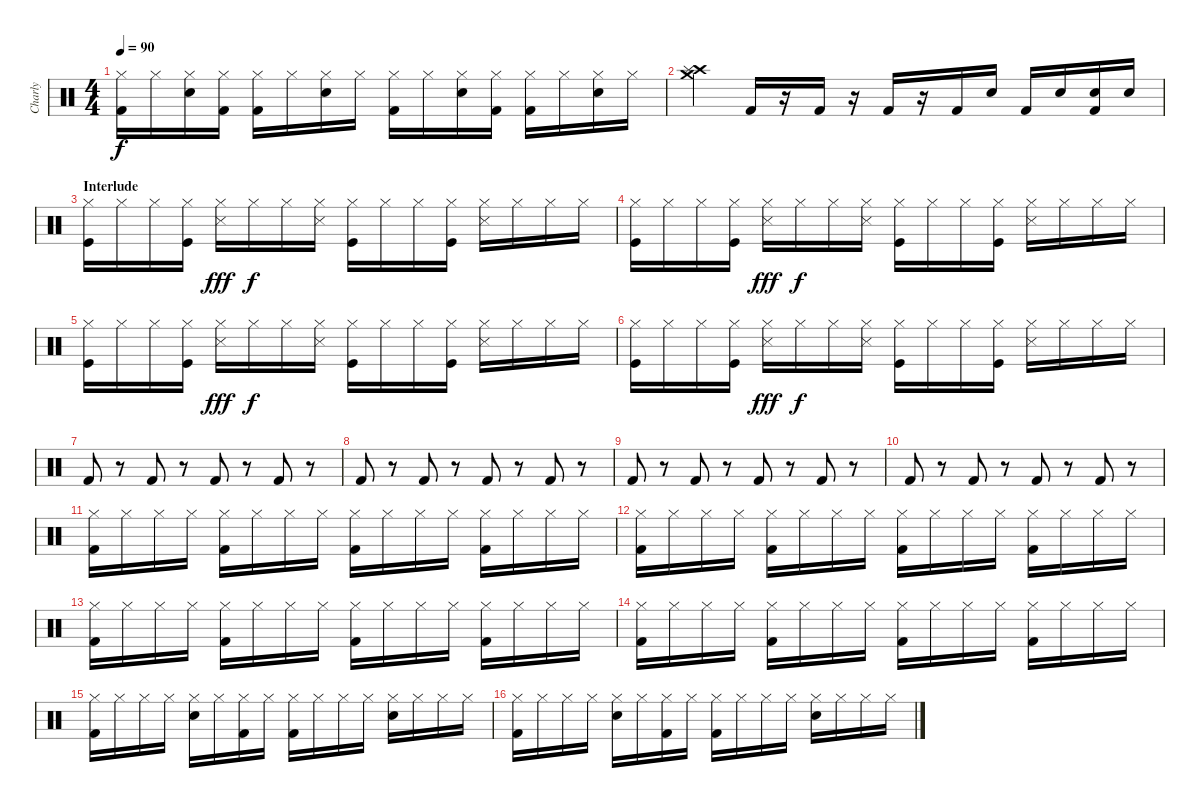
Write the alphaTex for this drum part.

\track ("Charly" "Charly") {instrument percussion}
\staff {score}
\articulation defaults
\ts (4 4)
\tempo 90
\clef neutral
\ks c
("Hi-Hat (closed)" "Kick (hit) 2").16{dy f} "Hi-Hat (closed)".16 ("Hi-Hat (closed)" "Electric Snare (hit)").16 ("Hi-Hat (closed)" "Kick (hit) 2").16 ("Hi-Hat (closed)" "Kick (hit) 2").16 "Hi-Hat (closed)".16 ("Hi-Hat (closed)" "Electric Snare (hit)").16 "Hi-Hat (closed)".16 ("Hi-Hat (closed)" "Kick (hit) 2").16 "Hi-Hat (closed)".16 ("Hi-Hat (closed)" "Electric Snare (hit)").16 ("Hi-Hat (closed)" "Kick (hit) 2").16 ("Hi-Hat (closed)" "Kick (hit) 2").16 "Hi-Hat (closed)".16 ("Hi-Hat (closed)" "Electric Snare (hit)").16 "Hi-Hat (closed)".16 |
("Crash high (hit)" "Splash (hit)" "Crash medium (hit)").4 "Kick (hit) 2".16 r.16 "Kick (hit) 2".16 r.16 "Kick (hit) 2".16 r.16 "Kick (hit) 2".16 "Electric Snare (hit)".16 "Kick (hit) 2".16 "Electric Snare (hit)".16 ("Electric Snare (hit)" "Kick (hit) 2").16 "Electric Snare (hit)".16 |
\section ("" "Interlude")
("Hi-Hat (closed)" "Kick (hit)").16 "Hi-Hat (closed)".16 "Hi-Hat (closed)".16 ("Hi-Hat (closed)" "Kick (hit)").16 ("Hi-Hat (closed)" "Snare (side stick) 3").16{dy fff} "Hi-Hat (closed)".16{dy f} "Hi-Hat (closed)".16 ("Hi-Hat (closed)" "Snare (side stick) 3").16 ("Hi-Hat (closed)" "Kick (hit)").16 "Hi-Hat (closed)".16 "Hi-Hat (closed)".16 ("Hi-Hat (closed)" "Kick (hit)").16 ("Hi-Hat (closed)" "Snare (side stick) 3").16 "Hi-Hat (closed)".16 "Hi-Hat (closed)".16 "Hi-Hat (closed)".16 |
("Hi-Hat (closed)" "Kick (hit)").16 "Hi-Hat (closed)".16 "Hi-Hat (closed)".16 ("Hi-Hat (closed)" "Kick (hit)").16 ("Hi-Hat (closed)" "Snare (side stick) 3").16{dy fff} "Hi-Hat (closed)".16{dy f} "Hi-Hat (closed)".16 ("Hi-Hat (closed)" "Snare (side stick) 3").16 ("Hi-Hat (closed)" "Kick (hit)").16 "Hi-Hat (closed)".16 "Hi-Hat (closed)".16 ("Hi-Hat (closed)" "Kick (hit)").16 ("Hi-Hat (closed)" "Snare (side stick) 3").16 "Hi-Hat (closed)".16 "Hi-Hat (closed)".16 "Hi-Hat (closed)".16 |
("Hi-Hat (closed)" "Kick (hit)").16 "Hi-Hat (closed)".16 "Hi-Hat (closed)".16 ("Hi-Hat (closed)" "Kick (hit)").16 ("Hi-Hat (closed)" "Snare (side stick) 3").16{dy fff} "Hi-Hat (closed)".16{dy f} "Hi-Hat (closed)".16 ("Hi-Hat (closed)" "Snare (side stick) 3").16 ("Hi-Hat (closed)" "Kick (hit)").16 "Hi-Hat (closed)".16 "Hi-Hat (closed)".16 ("Hi-Hat (closed)" "Kick (hit)").16 ("Hi-Hat (closed)" "Snare (side stick) 3").16 "Hi-Hat (closed)".16 "Hi-Hat (closed)".16 "Hi-Hat (closed)".16 |
("Hi-Hat (closed)" "Kick (hit)").16 "Hi-Hat (closed)".16 "Hi-Hat (closed)".16 ("Hi-Hat (closed)" "Kick (hit)").16 ("Hi-Hat (closed)" "Snare (side stick) 3").16{dy fff} "Hi-Hat (closed)".16{dy f} "Hi-Hat (closed)".16 ("Hi-Hat (closed)" "Snare (side stick) 3").16 ("Hi-Hat (closed)" "Kick (hit)").16 "Hi-Hat (closed)".16 "Hi-Hat (closed)".16 ("Hi-Hat (closed)" "Kick (hit)").16 ("Hi-Hat (closed)" "Snare (side stick) 3").16 "Hi-Hat (closed)".16 "Hi-Hat (closed)".16 "Hi-Hat (closed)".16 |
"Kick (hit) 2".8 r.8 "Kick (hit) 2".8 r.8 "Kick (hit) 2".8 r.8 "Kick (hit) 2".8 r.8 |
"Kick (hit) 2".8 r.8 "Kick (hit) 2".8 r.8 "Kick (hit) 2".8 r.8 "Kick (hit) 2".8 r.8 |
"Kick (hit) 2".8 r.8 "Kick (hit) 2".8 r.8 "Kick (hit) 2".8 r.8 "Kick (hit) 2".8 r.8 |
"Kick (hit) 2".8 r.8 "Kick (hit) 2".8 r.8 "Kick (hit) 2".8 r.8 "Kick (hit) 2".8 r.8 |
("Hi-Hat (closed)" "Kick (hit) 2").16 "Hi-Hat (closed)".16 "Hi-Hat (closed)".16 "Hi-Hat (closed)".16 ("Hi-Hat (closed)" "Kick (hit) 2").16 "Hi-Hat (closed)".16 "Hi-Hat (closed)".16 "Hi-Hat (closed)".16 ("Hi-Hat (closed)" "Kick (hit) 2").16 "Hi-Hat (closed)".16 "Hi-Hat (closed)".16 "Hi-Hat (closed)".16 ("Hi-Hat (closed)" "Kick (hit) 2").16 "Hi-Hat (closed)".16 "Hi-Hat (closed)".16 "Hi-Hat (closed)".16 |
("Hi-Hat (closed)" "Kick (hit) 2").16 "Hi-Hat (closed)".16 "Hi-Hat (closed)".16 "Hi-Hat (closed)".16 ("Hi-Hat (closed)" "Kick (hit) 2").16 "Hi-Hat (closed)".16 "Hi-Hat (closed)".16 "Hi-Hat (closed)".16 ("Hi-Hat (closed)" "Kick (hit) 2").16 "Hi-Hat (closed)".16 "Hi-Hat (closed)".16 "Hi-Hat (closed)".16 ("Hi-Hat (closed)" "Kick (hit) 2").16 "Hi-Hat (closed)".16 "Hi-Hat (closed)".16 "Hi-Hat (closed)".16 |
("Hi-Hat (closed)" "Kick (hit) 2").16 "Hi-Hat (closed)".16 "Hi-Hat (closed)".16 "Hi-Hat (closed)".16 ("Hi-Hat (closed)" "Kick (hit) 2").16 "Hi-Hat (closed)".16 "Hi-Hat (closed)".16 "Hi-Hat (closed)".16 ("Hi-Hat (closed)" "Kick (hit) 2").16 "Hi-Hat (closed)".16 "Hi-Hat (closed)".16 "Hi-Hat (closed)".16 ("Hi-Hat (closed)" "Kick (hit) 2").16 "Hi-Hat (closed)".16 "Hi-Hat (closed)".16 "Hi-Hat (closed)".16 |
("Hi-Hat (closed)" "Kick (hit) 2").16 "Hi-Hat (closed)".16 "Hi-Hat (closed)".16 "Hi-Hat (closed)".16 ("Hi-Hat (closed)" "Kick (hit) 2").16 "Hi-Hat (closed)".16 "Hi-Hat (closed)".16 "Hi-Hat (closed)".16 ("Hi-Hat (closed)" "Kick (hit) 2").16 "Hi-Hat (closed)".16 "Hi-Hat (closed)".16 "Hi-Hat (closed)".16 ("Hi-Hat (closed)" "Kick (hit) 2").16 "Hi-Hat (closed)".16 "Hi-Hat (closed)".16 "Hi-Hat (closed)".16 |
("Hi-Hat (closed)" "Kick (hit) 2").16 "Hi-Hat (closed)".16 "Hi-Hat (closed)".16 "Hi-Hat (closed)".16 ("Hi-Hat (closed)" "Electric Snare (hit)").16 "Hi-Hat (closed)".16 ("Hi-Hat (closed)" "Kick (hit) 2").16 "Hi-Hat (closed)".16 ("Hi-Hat (closed)" "Kick (hit) 2").16 "Hi-Hat (closed)".16 "Hi-Hat (closed)".16 "Hi-Hat (closed)".16 ("Hi-Hat (closed)" "Electric Snare (hit)").16 "Hi-Hat (closed)".16 "Hi-Hat (closed)".16 "Hi-Hat (closed)".16 |
("Hi-Hat (closed)" "Kick (hit) 2").16 "Hi-Hat (closed)".16 "Hi-Hat (closed)".16 "Hi-Hat (closed)".16 ("Hi-Hat (closed)" "Electric Snare (hit)").16 "Hi-Hat (closed)".16 ("Hi-Hat (closed)" "Kick (hit) 2").16 "Hi-Hat (closed)".16 ("Hi-Hat (closed)" "Kick (hit) 2").16 "Hi-Hat (closed)".16 "Hi-Hat (closed)".16 "Hi-Hat (closed)".16 ("Hi-Hat (closed)" "Electric Snare (hit)").16 "Hi-Hat (closed)".16 "Hi-Hat (closed)".16 "Hi-Hat (closed)".16
